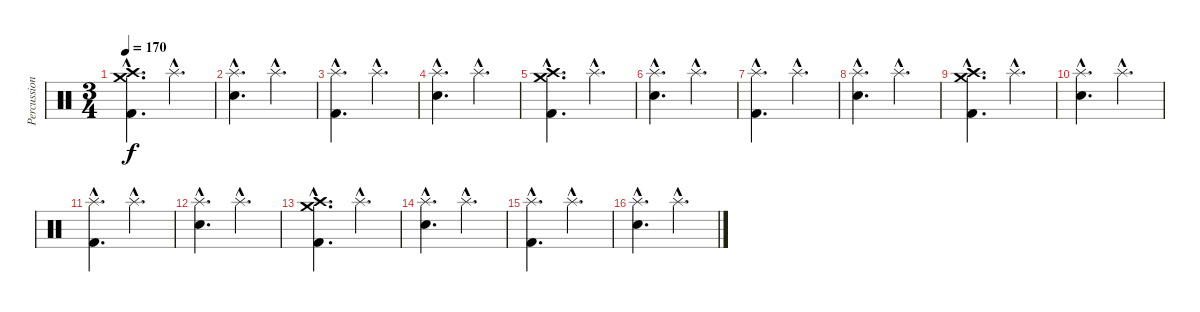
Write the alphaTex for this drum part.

\track ("Percussion" "Percussion") {instrument percussion}
\staff {score}
\articulation defaults
\ts (3 4)
\tempo 170
\clef neutral
\ks c
("Crash medium (hit)"{hac} "Crash high (hit)"{hac} "Kick (hit) 2"{hac}).4{d dy f} "Splash (hit)"{hac}.4{d} |
("Splash (hit)"{hac} "Snare (hit) 2"{hac}).4{d} "Splash (hit)"{hac}.4{d} |
("Splash (hit)"{hac} "Kick (hit) 2"{hac}).4{d} "Splash (hit)"{hac}.4{d} |
("Splash (hit)"{hac} "Snare (hit) 2"{hac}).4{d} "Splash (hit)"{hac}.4{d} |
("Crash medium (hit)"{hac} "Crash high (hit)"{hac} "Kick (hit) 2"{hac}).4{d} "Splash (hit)"{hac}.4{d} |
("Splash (hit)"{hac} "Snare (hit) 2"{hac}).4{d} "Splash (hit)"{hac}.4{d} |
("Splash (hit)"{hac} "Kick (hit) 2"{hac}).4{d} "Splash (hit)"{hac}.4{d} |
("Splash (hit)"{hac} "Snare (hit) 2"{hac}).4{d} "Splash (hit)"{hac}.4{d} |
("Crash medium (hit)"{hac} "Crash high (hit)"{hac} "Kick (hit) 2"{hac}).4{d} "Splash (hit)"{hac}.4{d} |
("Splash (hit)"{hac} "Snare (hit) 2"{hac}).4{d} "Splash (hit)"{hac}.4{d} |
("Splash (hit)"{hac} "Kick (hit) 2"{hac}).4{d} "Splash (hit)"{hac}.4{d} |
("Splash (hit)"{hac} "Snare (hit) 2"{hac}).4{d} "Splash (hit)"{hac}.4{d} |
("Crash medium (hit)"{hac} "Crash high (hit)"{hac} "Kick (hit) 2"{hac}).4{d} "Splash (hit)"{hac}.4{d} |
("Splash (hit)"{hac} "Snare (hit) 2"{hac}).4{d} "Splash (hit)"{hac}.4{d} |
("Splash (hit)"{hac} "Kick (hit) 2"{hac}).4{d} "Splash (hit)"{hac}.4{d} |
("Splash (hit)"{hac} "Snare (hit) 2"{hac}).4{d} "Splash (hit)"{hac}.4{d}
